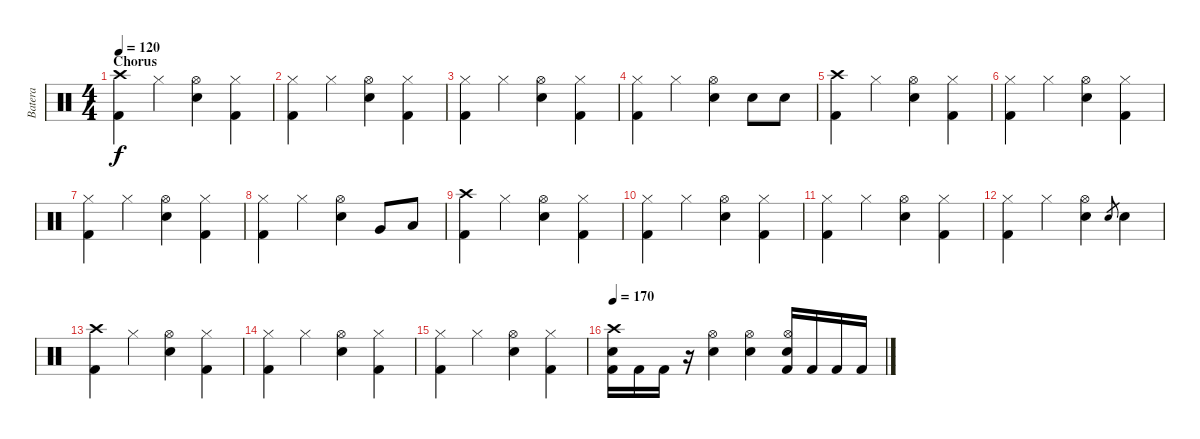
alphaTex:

\track ("Batera" "Batera") {instrument percussion}
\staff {score}
\articulation defaults
\ts (4 4)
\section ("" "Chorus")
\tempo 120
\clef neutral
\ks c
("Crash high (hit)" "Kick (hit) 2").4{dy f} "Hi-Hat (closed)".4 ("Hi-Hat (open)" "Electric Snare (hit)").4 ("Hi-Hat (closed)" "Kick (hit) 2").4 |
("Hi-Hat (closed)" "Kick (hit) 2").4 "Hi-Hat (closed)".4 ("Hi-Hat (open)" "Electric Snare (hit)").4 ("Hi-Hat (closed)" "Kick (hit) 2").4 |
("Hi-Hat (closed)" "Kick (hit) 2").4 "Hi-Hat (closed)".4 ("Hi-Hat (open)" "Electric Snare (hit)").4 ("Hi-Hat (closed)" "Kick (hit) 2").4 |
("Hi-Hat (closed)" "Kick (hit) 2").4 "Hi-Hat (closed)".4 ("Hi-Hat (open)" "Electric Snare (hit)").4 "Electric Snare (hit)".8 "Electric Snare (hit)".8 |
("Crash high (hit)" "Kick (hit) 2").4 "Hi-Hat (closed)".4 ("Hi-Hat (open)" "Electric Snare (hit)").4 ("Hi-Hat (closed)" "Kick (hit) 2").4 |
("Hi-Hat (closed)" "Kick (hit) 2").4 "Hi-Hat (closed)".4 ("Hi-Hat (open)" "Electric Snare (hit)").4 ("Hi-Hat (closed)" "Kick (hit) 2").4 |
("Hi-Hat (closed)" "Kick (hit) 2").4 "Hi-Hat (closed)".4 ("Hi-Hat (open)" "Electric Snare (hit)").4 ("Hi-Hat (closed)" "Kick (hit) 2").4 |
("Hi-Hat (closed)" "Kick (hit) 2").4 "Hi-Hat (closed)".4 ("Hi-Hat (open)" "Electric Snare (hit)").4 "Very Low Tom (hit)".8 "Low Tom (hit)".8 |
("Crash high (hit)" "Kick (hit) 2").4 "Hi-Hat (closed)".4 ("Hi-Hat (open)" "Electric Snare (hit)").4 ("Hi-Hat (closed)" "Kick (hit) 2").4 |
("Hi-Hat (closed)" "Kick (hit) 2").4 "Hi-Hat (closed)".4 ("Hi-Hat (open)" "Electric Snare (hit)").4 ("Hi-Hat (closed)" "Kick (hit) 2").4 |
("Hi-Hat (closed)" "Kick (hit) 2").4 "Hi-Hat (closed)".4 ("Hi-Hat (open)" "Electric Snare (hit)").4 ("Hi-Hat (closed)" "Kick (hit) 2").4 |
("Hi-Hat (closed)" "Kick (hit) 2").4 "Hi-Hat (closed)".4 ("Hi-Hat (open)" "Electric Snare (hit)").4 "Electric Snare (hit)".8{gr} "Electric Snare (hit)".4 |
("Crash high (hit)" "Kick (hit) 2").4 "Hi-Hat (closed)".4 ("Hi-Hat (open)" "Electric Snare (hit)").4 ("Hi-Hat (closed)" "Kick (hit) 2").4 |
("Hi-Hat (closed)" "Kick (hit) 2").4 "Hi-Hat (closed)".4 ("Hi-Hat (open)" "Electric Snare (hit)").4 ("Hi-Hat (closed)" "Kick (hit) 2").4 |
("Hi-Hat (closed)" "Kick (hit) 2").4 "Hi-Hat (closed)".4 ("Hi-Hat (open)" "Electric Snare (hit)").4 ("Hi-Hat (closed)" "Kick (hit) 2").4 |
\tempo 170
("Crash high (hit)" "Electric Snare (hit)" "Kick (hit) 2").16 "Kick (hit) 2".16 "Kick (hit) 2".16 r.16 ("Hi-Hat (open)" "Electric Snare (hit)").4 ("Hi-Hat (open)" "Electric Snare (hit)").4 ("Hi-Hat (open)" "Electric Snare (hit)" "Kick (hit) 2").16 "Kick (hit) 2".16 "Kick (hit) 2".16 "Kick (hit) 2".16
